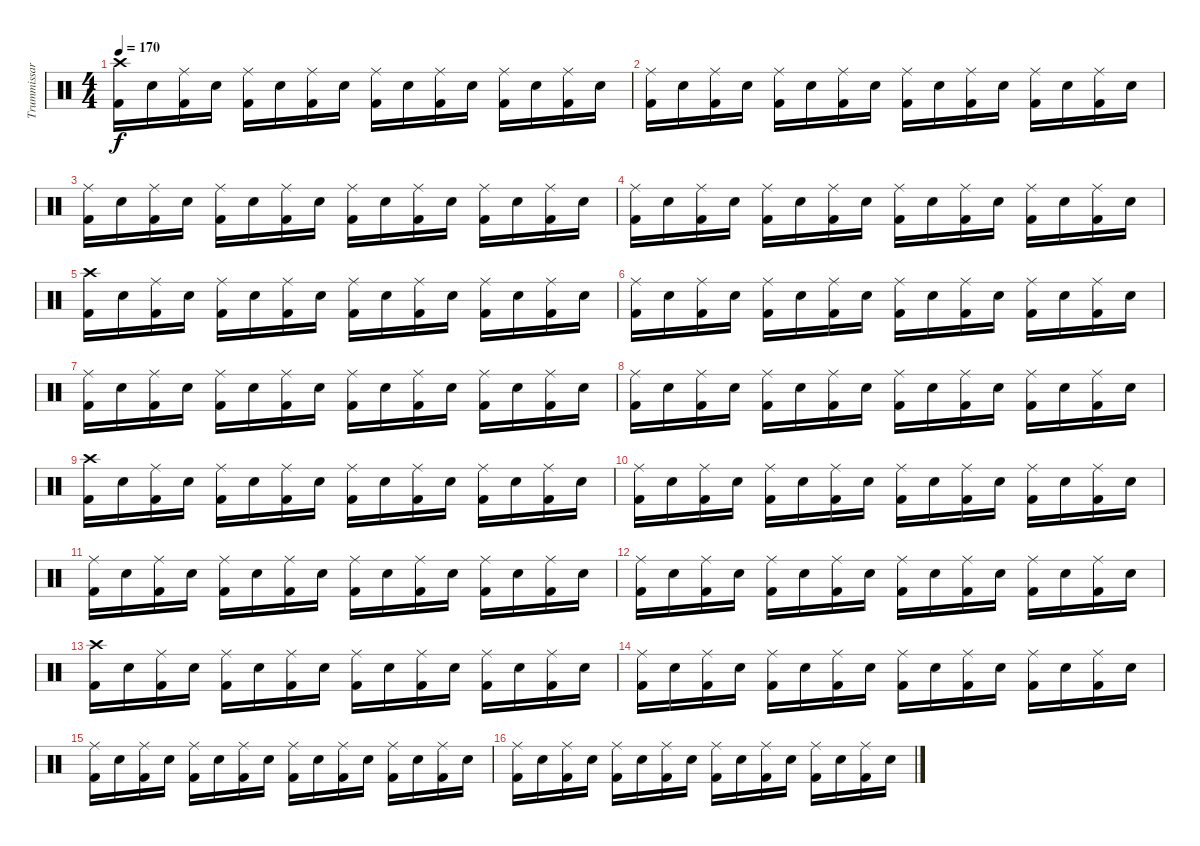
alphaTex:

\track ("Trummissar!!" "Trummissar") {instrument percussion}
\staff {score}
\articulation defaults
\ts (4 4)
\tempo 170
\clef neutral
\ks c
("Crash high (hit)" "Kick (hit) 2").16{dy f} "Electric Snare (hit)".16 ("Ride (middle)" "Kick (hit) 2").16 "Electric Snare (hit)".16 ("Ride (middle)" "Kick (hit) 2").16 "Electric Snare (hit)".16 ("Ride (middle)" "Kick (hit) 2").16 "Electric Snare (hit)".16 ("Ride (middle)" "Kick (hit) 2").16 "Electric Snare (hit)".16 ("Ride (middle)" "Kick (hit) 2").16 "Electric Snare (hit)".16 ("Ride (middle)" "Kick (hit) 2").16 "Electric Snare (hit)".16 ("Ride (middle)" "Kick (hit) 2").16 "Electric Snare (hit)".16 |
("Ride (middle)" "Kick (hit) 2").16 "Electric Snare (hit)".16 ("Ride (middle)" "Kick (hit) 2").16 "Electric Snare (hit)".16 ("Ride (middle)" "Kick (hit) 2").16 "Electric Snare (hit)".16 ("Ride (middle)" "Kick (hit) 2").16 "Electric Snare (hit)".16 ("Ride (middle)" "Kick (hit) 2").16 "Electric Snare (hit)".16 ("Ride (middle)" "Kick (hit) 2").16 "Electric Snare (hit)".16 ("Ride (middle)" "Kick (hit) 2").16 "Electric Snare (hit)".16 ("Ride (middle)" "Kick (hit) 2").16 "Electric Snare (hit)".16 |
("Ride (middle)" "Kick (hit) 2").16 "Electric Snare (hit)".16 ("Ride (middle)" "Kick (hit) 2").16 "Electric Snare (hit)".16 ("Ride (middle)" "Kick (hit) 2").16 "Electric Snare (hit)".16 ("Ride (middle)" "Kick (hit) 2").16 "Electric Snare (hit)".16 ("Ride (middle)" "Kick (hit) 2").16 "Electric Snare (hit)".16 ("Ride (middle)" "Kick (hit) 2").16 "Electric Snare (hit)".16 ("Ride (middle)" "Kick (hit) 2").16 "Electric Snare (hit)".16 ("Ride (middle)" "Kick (hit) 2").16 "Electric Snare (hit)".16 |
("Ride (middle)" "Kick (hit) 2").16 "Electric Snare (hit)".16 ("Ride (middle)" "Kick (hit) 2").16 "Electric Snare (hit)".16 ("Ride (middle)" "Kick (hit) 2").16 "Electric Snare (hit)".16 ("Ride (middle)" "Kick (hit) 2").16 "Electric Snare (hit)".16 ("Ride (middle)" "Kick (hit) 2").16 "Electric Snare (hit)".16 ("Ride (middle)" "Kick (hit) 2").16 "Electric Snare (hit)".16 ("Ride (middle)" "Kick (hit) 2").16 "Electric Snare (hit)".16 ("Ride (middle)" "Kick (hit) 2").16 "Electric Snare (hit)".16 |
("Crash high (hit)" "Kick (hit) 2").16 "Electric Snare (hit)".16 ("Ride (middle)" "Kick (hit) 2").16 "Electric Snare (hit)".16 ("Ride (middle)" "Kick (hit) 2").16 "Electric Snare (hit)".16 ("Ride (middle)" "Kick (hit) 2").16 "Electric Snare (hit)".16 ("Ride (middle)" "Kick (hit) 2").16 "Electric Snare (hit)".16 ("Ride (middle)" "Kick (hit) 2").16 "Electric Snare (hit)".16 ("Ride (middle)" "Kick (hit) 2").16 "Electric Snare (hit)".16 ("Ride (middle)" "Kick (hit) 2").16 "Electric Snare (hit)".16 |
("Ride (middle)" "Kick (hit) 2").16 "Electric Snare (hit)".16 ("Ride (middle)" "Kick (hit) 2").16 "Electric Snare (hit)".16 ("Ride (middle)" "Kick (hit) 2").16 "Electric Snare (hit)".16 ("Ride (middle)" "Kick (hit) 2").16 "Electric Snare (hit)".16 ("Ride (middle)" "Kick (hit) 2").16 "Electric Snare (hit)".16 ("Ride (middle)" "Kick (hit) 2").16 "Electric Snare (hit)".16 ("Ride (middle)" "Kick (hit) 2").16 "Electric Snare (hit)".16 ("Ride (middle)" "Kick (hit) 2").16 "Electric Snare (hit)".16 |
("Ride (middle)" "Kick (hit) 2").16 "Electric Snare (hit)".16 ("Ride (middle)" "Kick (hit) 2").16 "Electric Snare (hit)".16 ("Ride (middle)" "Kick (hit) 2").16 "Electric Snare (hit)".16 ("Ride (middle)" "Kick (hit) 2").16 "Electric Snare (hit)".16 ("Ride (middle)" "Kick (hit) 2").16 "Electric Snare (hit)".16 ("Ride (middle)" "Kick (hit) 2").16 "Electric Snare (hit)".16 ("Ride (middle)" "Kick (hit) 2").16 "Electric Snare (hit)".16 ("Ride (middle)" "Kick (hit) 2").16 "Electric Snare (hit)".16 |
("Ride (middle)" "Kick (hit) 2").16 "Electric Snare (hit)".16 ("Ride (middle)" "Kick (hit) 2").16 "Electric Snare (hit)".16 ("Ride (middle)" "Kick (hit) 2").16 "Electric Snare (hit)".16 ("Ride (middle)" "Kick (hit) 2").16 "Electric Snare (hit)".16 ("Ride (middle)" "Kick (hit) 2").16 "Electric Snare (hit)".16 ("Ride (middle)" "Kick (hit) 2").16 "Electric Snare (hit)".16 ("Ride (middle)" "Kick (hit) 2").16 "Electric Snare (hit)".16 ("Ride (middle)" "Kick (hit) 2").16 "Electric Snare (hit)".16 |
("Crash high (hit)" "Kick (hit) 2").16 "Electric Snare (hit)".16 ("Ride (middle)" "Kick (hit) 2").16 "Electric Snare (hit)".16 ("Ride (middle)" "Kick (hit) 2").16 "Electric Snare (hit)".16 ("Ride (middle)" "Kick (hit) 2").16 "Electric Snare (hit)".16 ("Ride (middle)" "Kick (hit) 2").16 "Electric Snare (hit)".16 ("Ride (middle)" "Kick (hit) 2").16 "Electric Snare (hit)".16 ("Ride (middle)" "Kick (hit) 2").16 "Electric Snare (hit)".16 ("Ride (middle)" "Kick (hit) 2").16 "Electric Snare (hit)".16 |
("Ride (middle)" "Kick (hit) 2").16 "Electric Snare (hit)".16 ("Ride (middle)" "Kick (hit) 2").16 "Electric Snare (hit)".16 ("Ride (middle)" "Kick (hit) 2").16 "Electric Snare (hit)".16 ("Ride (middle)" "Kick (hit) 2").16 "Electric Snare (hit)".16 ("Ride (middle)" "Kick (hit) 2").16 "Electric Snare (hit)".16 ("Ride (middle)" "Kick (hit) 2").16 "Electric Snare (hit)".16 ("Ride (middle)" "Kick (hit) 2").16 "Electric Snare (hit)".16 ("Ride (middle)" "Kick (hit) 2").16 "Electric Snare (hit)".16 |
("Ride (middle)" "Kick (hit) 2").16 "Electric Snare (hit)".16 ("Ride (middle)" "Kick (hit) 2").16 "Electric Snare (hit)".16 ("Ride (middle)" "Kick (hit) 2").16 "Electric Snare (hit)".16 ("Ride (middle)" "Kick (hit) 2").16 "Electric Snare (hit)".16 ("Ride (middle)" "Kick (hit) 2").16 "Electric Snare (hit)".16 ("Ride (middle)" "Kick (hit) 2").16 "Electric Snare (hit)".16 ("Ride (middle)" "Kick (hit) 2").16 "Electric Snare (hit)".16 ("Ride (middle)" "Kick (hit) 2").16 "Electric Snare (hit)".16 |
("Ride (middle)" "Kick (hit) 2").16 "Electric Snare (hit)".16 ("Ride (middle)" "Kick (hit) 2").16 "Electric Snare (hit)".16 ("Ride (middle)" "Kick (hit) 2").16 "Electric Snare (hit)".16 ("Ride (middle)" "Kick (hit) 2").16 "Electric Snare (hit)".16 ("Ride (middle)" "Kick (hit) 2").16 "Electric Snare (hit)".16 ("Ride (middle)" "Kick (hit) 2").16 "Electric Snare (hit)".16 ("Ride (middle)" "Kick (hit) 2").16 "Electric Snare (hit)".16 ("Ride (middle)" "Kick (hit) 2").16 "Electric Snare (hit)".16 |
("Crash high (hit)" "Kick (hit) 2").16 "Electric Snare (hit)".16 ("Ride (middle)" "Kick (hit) 2").16 "Electric Snare (hit)".16 ("Ride (middle)" "Kick (hit) 2").16 "Electric Snare (hit)".16 ("Ride (middle)" "Kick (hit) 2").16 "Electric Snare (hit)".16 ("Ride (middle)" "Kick (hit) 2").16 "Electric Snare (hit)".16 ("Ride (middle)" "Kick (hit) 2").16 "Electric Snare (hit)".16 ("Ride (middle)" "Kick (hit) 2").16 "Electric Snare (hit)".16 ("Ride (middle)" "Kick (hit) 2").16 "Electric Snare (hit)".16 |
("Ride (middle)" "Kick (hit) 2").16 "Electric Snare (hit)".16 ("Ride (middle)" "Kick (hit) 2").16 "Electric Snare (hit)".16 ("Ride (middle)" "Kick (hit) 2").16 "Electric Snare (hit)".16 ("Ride (middle)" "Kick (hit) 2").16 "Electric Snare (hit)".16 ("Ride (middle)" "Kick (hit) 2").16 "Electric Snare (hit)".16 ("Ride (middle)" "Kick (hit) 2").16 "Electric Snare (hit)".16 ("Ride (middle)" "Kick (hit) 2").16 "Electric Snare (hit)".16 ("Ride (middle)" "Kick (hit) 2").16 "Electric Snare (hit)".16 |
("Ride (middle)" "Kick (hit) 2").16 "Electric Snare (hit)".16 ("Ride (middle)" "Kick (hit) 2").16 "Electric Snare (hit)".16 ("Ride (middle)" "Kick (hit) 2").16 "Electric Snare (hit)".16 ("Ride (middle)" "Kick (hit) 2").16 "Electric Snare (hit)".16 ("Ride (middle)" "Kick (hit) 2").16 "Electric Snare (hit)".16 ("Ride (middle)" "Kick (hit) 2").16 "Electric Snare (hit)".16 ("Ride (middle)" "Kick (hit) 2").16 "Electric Snare (hit)".16 ("Ride (middle)" "Kick (hit) 2").16 "Electric Snare (hit)".16 |
("Ride (middle)" "Kick (hit) 2").16 "Electric Snare (hit)".16 ("Ride (middle)" "Kick (hit) 2").16 "Electric Snare (hit)".16 ("Ride (middle)" "Kick (hit) 2").16 "Electric Snare (hit)".16 ("Ride (middle)" "Kick (hit) 2").16 "Electric Snare (hit)".16 ("Ride (middle)" "Kick (hit) 2").16 "Electric Snare (hit)".16 ("Ride (middle)" "Kick (hit) 2").16 "Electric Snare (hit)".16 ("Ride (middle)" "Kick (hit) 2").16 "Electric Snare (hit)".16 ("Ride (middle)" "Kick (hit) 2").16 "Electric Snare (hit)".16
